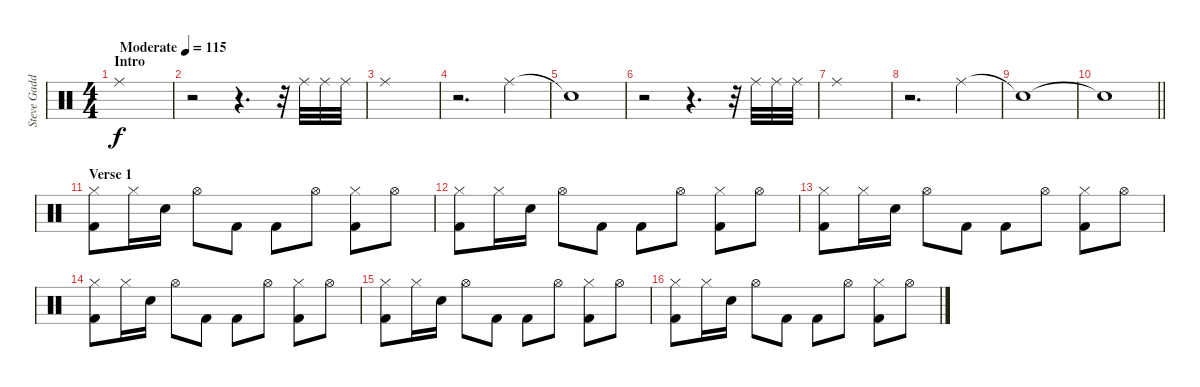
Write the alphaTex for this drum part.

\track ("Steve Gadd" "Steve Gadd") {instrument percussion}
\staff {score}
\articulation defaults
\ts (4 4)
\section ("" "Intro")
\tempo (115 "Moderate")
\clef neutral
\ks c "Ride (middle)".1{dy f}
|
r.2 r.4{d} r.32 "Ride (middle)".32 "Ride (middle)".32 "Ride (middle)".32 |
"Ride (middle)".1 |
r.2{d} "Ride (middle)".4 |
"Snare (hit)"{t}.1 |
r.2 r.4{d} r.32 "Ride (middle)".32 "Ride (middle)".32 "Ride (middle)".32 |
"Ride (middle)".1 |
r.2{d} "Ride (middle)".4 |
"Snare (hit)"{t}.1 |
\barLineRight lightlight "Snare (hit)"{t}.1
|
\section ("" "Verse 1")
("Hi-Hat (closed)" "Kick (hit) 2").8 "Hi-Hat (closed)".16 "Electric Snare (hit)".16 "Hi-Hat (open)".8 "Kick (hit) 2".8 "Kick (hit) 2".8 "Hi-Hat (open)".8 ("Hi-Hat (closed)" "Kick (hit) 2").8 "Hi-Hat (open)".8 |
("Hi-Hat (closed)" "Kick (hit) 2").8 "Hi-Hat (closed)".16 "Electric Snare (hit)".16 "Hi-Hat (open)".8 "Kick (hit) 2".8 "Kick (hit) 2".8 "Hi-Hat (open)".8 ("Hi-Hat (closed)" "Kick (hit) 2").8 "Hi-Hat (open)".8 |
("Hi-Hat (closed)" "Kick (hit) 2").8 "Hi-Hat (closed)".16 "Electric Snare (hit)".16 "Hi-Hat (open)".8 "Kick (hit) 2".8 "Kick (hit) 2".8 "Hi-Hat (open)".8 ("Hi-Hat (closed)" "Kick (hit) 2").8 "Hi-Hat (open)".8 |
("Hi-Hat (closed)" "Kick (hit) 2").8 "Hi-Hat (closed)".16 "Electric Snare (hit)".16 "Hi-Hat (open)".8 "Kick (hit) 2".8 "Kick (hit) 2".8 "Hi-Hat (open)".8 ("Hi-Hat (closed)" "Kick (hit) 2").8 "Hi-Hat (open)".8 |
("Hi-Hat (closed)" "Kick (hit) 2").8 "Hi-Hat (closed)".16 "Electric Snare (hit)".16 "Hi-Hat (open)".8 "Kick (hit) 2".8 "Kick (hit) 2".8 "Hi-Hat (open)".8 ("Hi-Hat (closed)" "Kick (hit) 2").8 "Hi-Hat (open)".8 |
("Hi-Hat (closed)" "Kick (hit) 2").8 "Hi-Hat (closed)".16 "Electric Snare (hit)".16 "Hi-Hat (open)".8 "Kick (hit) 2".8 "Kick (hit) 2".8 "Hi-Hat (open)".8 ("Hi-Hat (closed)" "Kick (hit) 2").8 "Hi-Hat (open)".8
